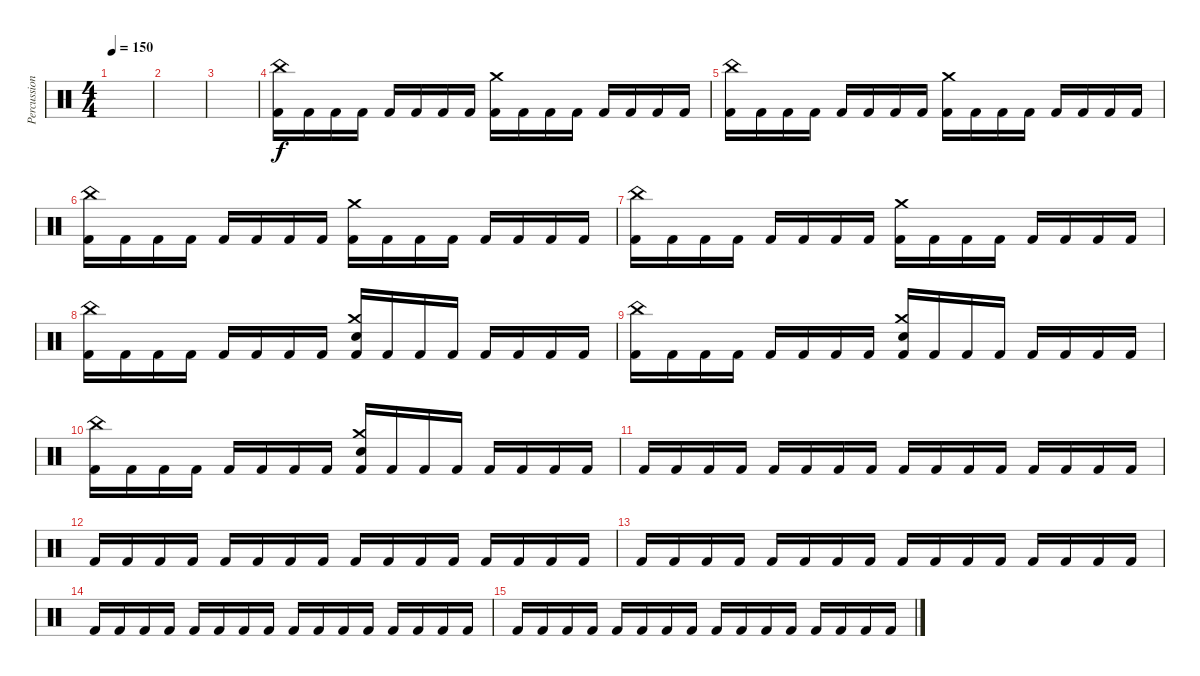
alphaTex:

\track ("Percussions" "Percussion") {instrument percussion}
\staff {score}
\articulation defaults
\ts (4 4)
\tempo 150
\clef neutral
\ks c
|
|
|
("China (hit)" "Kick (hit) 2").16 "Kick (hit) 2".16 "Kick (hit) 2".16 "Kick (hit) 2".16 "Kick (hit) 2".16 "Kick (hit) 2".16 "Kick (hit) 2".16 "Kick (hit) 2".16 ("Crash medium (hit)" "Kick (hit) 2").16 "Kick (hit) 2".16 "Kick (hit) 2".16 "Kick (hit) 2".16 "Kick (hit) 2".16 "Kick (hit) 2".16 "Kick (hit) 2".16 "Kick (hit) 2".16 |
("China (hit)" "Kick (hit) 2").16 "Kick (hit) 2".16 "Kick (hit) 2".16 "Kick (hit) 2".16 "Kick (hit) 2".16 "Kick (hit) 2".16 "Kick (hit) 2".16 "Kick (hit) 2".16 ("Crash medium (hit)" "Kick (hit) 2").16 "Kick (hit) 2".16 "Kick (hit) 2".16 "Kick (hit) 2".16 "Kick (hit) 2".16 "Kick (hit) 2".16 "Kick (hit) 2".16 "Kick (hit) 2".16 |
("China (hit)" "Kick (hit) 2").16 "Kick (hit) 2".16 "Kick (hit) 2".16 "Kick (hit) 2".16 "Kick (hit) 2".16 "Kick (hit) 2".16 "Kick (hit) 2".16 "Kick (hit) 2".16 ("Crash medium (hit)" "Kick (hit) 2").16 "Kick (hit) 2".16 "Kick (hit) 2".16 "Kick (hit) 2".16 "Kick (hit) 2".16 "Kick (hit) 2".16 "Kick (hit) 2".16 "Kick (hit) 2".16 |
("China (hit)" "Kick (hit) 2").16 "Kick (hit) 2".16 "Kick (hit) 2".16 "Kick (hit) 2".16 "Kick (hit) 2".16 "Kick (hit) 2".16 "Kick (hit) 2".16 "Kick (hit) 2".16 ("Crash medium (hit)" "Kick (hit) 2").16 "Kick (hit) 2".16 "Kick (hit) 2".16 "Kick (hit) 2".16 "Kick (hit) 2".16 "Kick (hit) 2".16 "Kick (hit) 2".16 "Kick (hit) 2".16 |
("China (hit)" "Kick (hit) 2").16 "Kick (hit) 2".16 "Kick (hit) 2".16 "Kick (hit) 2".16 "Kick (hit) 2".16 "Kick (hit) 2".16 "Kick (hit) 2".16 "Kick (hit) 2".16 ("Electric Snare (hit)" "Crash medium (hit)" "Kick (hit) 2").16 "Kick (hit) 2".16 "Kick (hit) 2".16 "Kick (hit) 2".16 "Kick (hit) 2".16 "Kick (hit) 2".16 "Kick (hit) 2".16 "Kick (hit) 2".16 |
("China (hit)" "Kick (hit) 2").16 "Kick (hit) 2".16 "Kick (hit) 2".16 "Kick (hit) 2".16 "Kick (hit) 2".16 "Kick (hit) 2".16 "Kick (hit) 2".16 "Kick (hit) 2".16 ("Electric Snare (hit)" "Crash medium (hit)" "Kick (hit) 2").16 "Kick (hit) 2".16 "Kick (hit) 2".16 "Kick (hit) 2".16 "Kick (hit) 2".16 "Kick (hit) 2".16 "Kick (hit) 2".16 "Kick (hit) 2".16 |
("China (hit)" "Kick (hit) 2").16 "Kick (hit) 2".16 "Kick (hit) 2".16 "Kick (hit) 2".16 "Kick (hit) 2".16 "Kick (hit) 2".16 "Kick (hit) 2".16 "Kick (hit) 2".16 ("Electric Snare (hit)" "Crash medium (hit)" "Kick (hit) 2").16 "Kick (hit) 2".16 "Kick (hit) 2".16 "Kick (hit) 2".16 "Kick (hit) 2".16 "Kick (hit) 2".16 "Kick (hit) 2".16 "Kick (hit) 2".16 |
"Kick (hit) 2".16 "Kick (hit) 2".16 "Kick (hit) 2".16 "Kick (hit) 2".16 "Kick (hit) 2".16 "Kick (hit) 2".16 "Kick (hit) 2".16 "Kick (hit) 2".16 "Kick (hit) 2".16 "Kick (hit) 2".16 "Kick (hit) 2".16 "Kick (hit) 2".16 "Kick (hit) 2".16 "Kick (hit) 2".16 "Kick (hit) 2".16 "Kick (hit) 2".16 |
"Kick (hit) 2".16 "Kick (hit) 2".16 "Kick (hit) 2".16 "Kick (hit) 2".16 "Kick (hit) 2".16 "Kick (hit) 2".16 "Kick (hit) 2".16 "Kick (hit) 2".16 "Kick (hit) 2".16 "Kick (hit) 2".16 "Kick (hit) 2".16 "Kick (hit) 2".16 "Kick (hit) 2".16 "Kick (hit) 2".16 "Kick (hit) 2".16 "Kick (hit) 2".16 |
"Kick (hit) 2".16 "Kick (hit) 2".16 "Kick (hit) 2".16 "Kick (hit) 2".16 "Kick (hit) 2".16 "Kick (hit) 2".16 "Kick (hit) 2".16 "Kick (hit) 2".16 "Kick (hit) 2".16 "Kick (hit) 2".16 "Kick (hit) 2".16 "Kick (hit) 2".16 "Kick (hit) 2".16 "Kick (hit) 2".16 "Kick (hit) 2".16 "Kick (hit) 2".16 |
"Kick (hit) 2".16 "Kick (hit) 2".16 "Kick (hit) 2".16 "Kick (hit) 2".16 "Kick (hit) 2".16 "Kick (hit) 2".16 "Kick (hit) 2".16 "Kick (hit) 2".16 "Kick (hit) 2".16 "Kick (hit) 2".16 "Kick (hit) 2".16 "Kick (hit) 2".16 "Kick (hit) 2".16 "Kick (hit) 2".16 "Kick (hit) 2".16 "Kick (hit) 2".16 |
"Kick (hit) 2".16 "Kick (hit) 2".16 "Kick (hit) 2".16 "Kick (hit) 2".16 "Kick (hit) 2".16 "Kick (hit) 2".16 "Kick (hit) 2".16 "Kick (hit) 2".16 "Kick (hit) 2".16 "Kick (hit) 2".16 "Kick (hit) 2".16 "Kick (hit) 2".16 "Kick (hit) 2".16 "Kick (hit) 2".16 "Kick (hit) 2".16 "Kick (hit) 2".16
